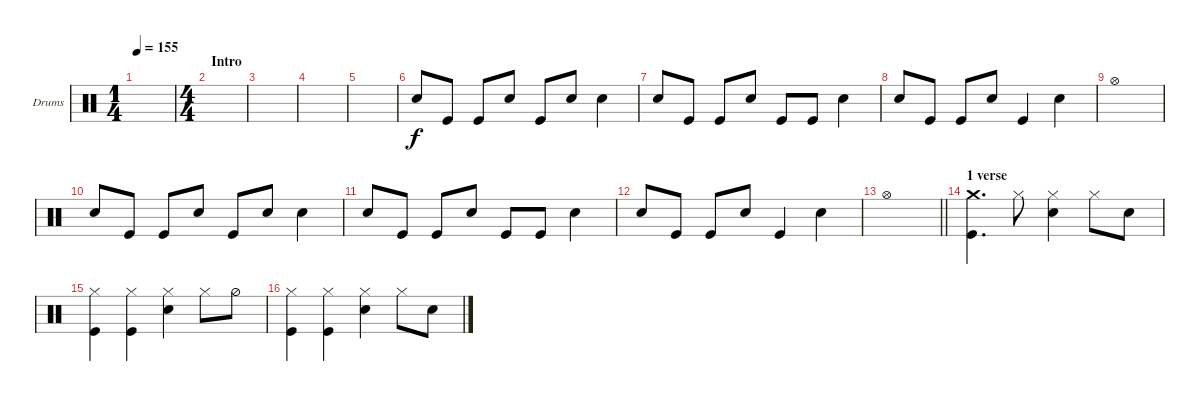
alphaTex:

\defaultSystemsLayout 4
\bracketExtendMode groupsimilarinstruments
\firstSystemTrackNameOrientation horizontal
\otherSystemsTrackNameOrientation horizontal
\track ("Drumkit" "Drums") {instrument percussion}
\staff {score}
\articulation defaults
\ts (1 4)
\tempo 155
\clef neutral
\scale
0.287749
\ks c
|
\ts (4 4)
\section ("" "Intro")
\scale
0.240761 |
\scale
0.152408 |
\scale
0.159544 |
\scale
0.159544 |
"Snare (hit) 2".8 "Kick (hit)".8 "Kick (hit)".8 "Snare (hit) 2".8 "Kick (hit)".8 "Snare (hit) 2".8 "Snare (hit) 2".4 |
"Snare (hit) 2".8 "Kick (hit)".8 "Kick (hit)".8 "Snare (hit) 2".8 "Kick (hit)".8 "Kick (hit)".8 "Snare (hit) 2".4 |
"Snare (hit) 2".8 "Kick (hit)".8 "Kick (hit)".8 "Snare (hit) 2".8 "Kick (hit)".4 "Snare (hit) 2".4 |
"Hi-Hat (open)".1 |
"Snare (hit) 2".8 "Kick (hit)".8 "Kick (hit)".8 "Snare (hit) 2".8 "Kick (hit)".8 "Snare (hit) 2".8 "Snare (hit) 2".4 |
"Snare (hit) 2".8 "Kick (hit)".8 "Kick (hit)".8 "Snare (hit) 2".8 "Kick (hit)".8 "Kick (hit)".8 "Snare (hit) 2".4 |
"Snare (hit) 2".8 "Kick (hit)".8 "Kick (hit)".8 "Snare (hit) 2".8 "Kick (hit)".4 "Snare (hit) 2".4 |
\barLineRight lightlight "Hi-Hat (open)".1
|
\section ("" "1 verse")
("Kick (hit)" "Crash medium (hit)").4{d dy f} "Hi-Hat (closed)".8 ("Hi-Hat (closed)" "Snare (hit) 2").4 "Hi-Hat (closed)".8 "Snare (hit) 2".8 |
("Kick (hit)" "Hi-Hat (closed)").4 ("Kick (hit)" "Hi-Hat (closed)").4 ("Snare (hit) 2" "Hi-Hat (closed)").4 "Hi-Hat (closed)".8 "Hi-Hat (half)".8 |
("Hi-Hat (closed)" "Kick (hit)").4 ("Hi-Hat (closed)" "Kick (hit)").4 ("Hi-Hat (closed)" "Snare (hit) 2").4 "Hi-Hat (closed)".8 "Snare (hit) 2".8
